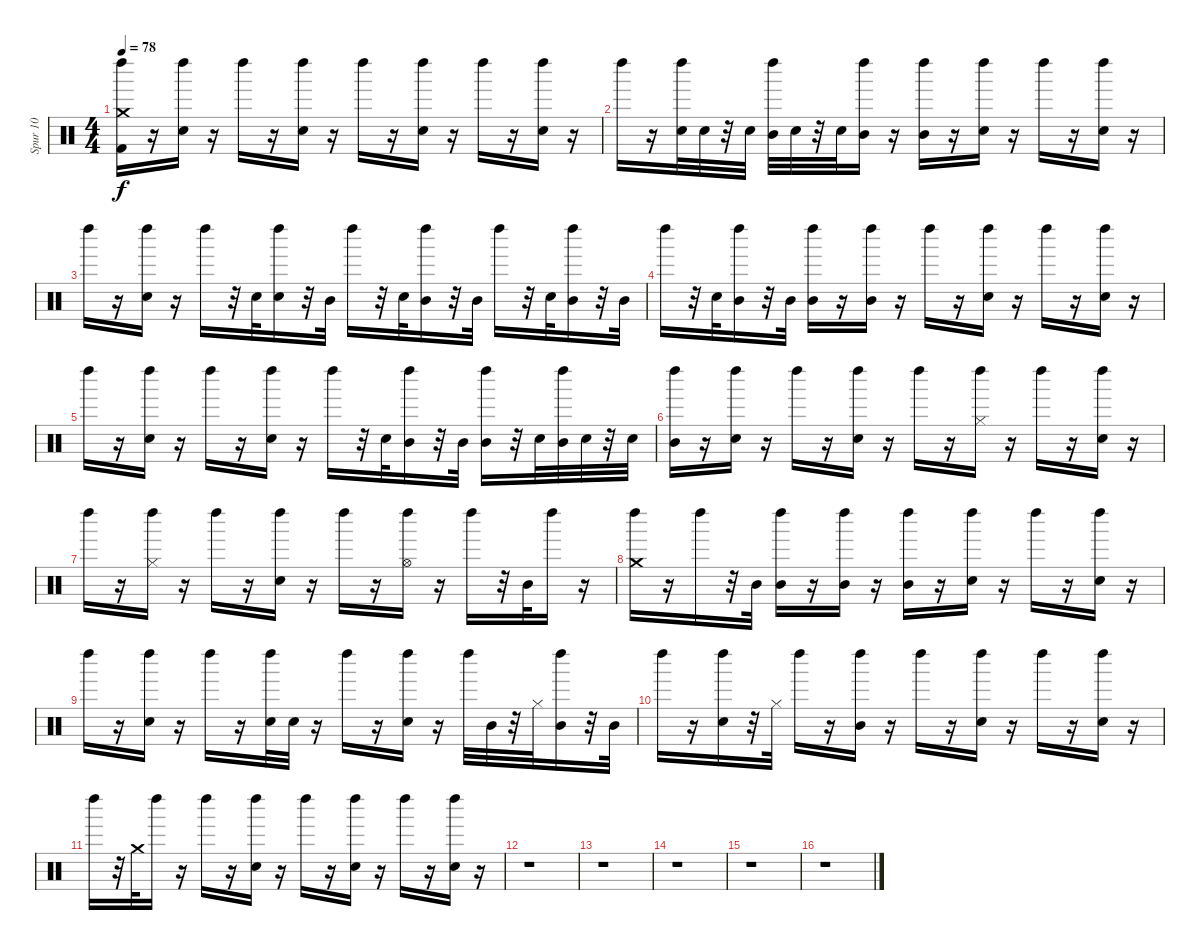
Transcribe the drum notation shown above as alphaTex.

\track ("Spur 10" "Spur 10") {instrument percussion}
\staff {score}
\articulation defaults
\ts (4 4)
\tempo 78
\clef neutral
\ks c
("Left Maraca (hit)" "Kick (hit) 2" "Crash medium (hit)").16{dy f} r.16 ("Left Maraca (hit)" "Snare (hit) 2").16 r.16 "Left Maraca (hit)".16 r.16 ("Left Maraca (hit)" "Snare (hit) 2").16 r.16 "Left Maraca (hit)".16 r.16 ("Left Maraca (hit)" "Snare (hit) 2").16 r.16 "Left Maraca (hit)".16 r.16 ("Left Maraca (hit)" "Snare (hit) 2").16 r.16 |
"Left Maraca (hit)".16 r.16 ("Left Maraca (hit)" "Snare (hit) 2").32 "Snare (hit) 2".32 r.32 "Snare (hit) 2".32 ("Left Maraca (hit)" "Mid Tom (hit)").32 "Snare (hit) 2".32 r.32 "Snare (hit) 2".32 ("Left Maraca (hit)" "Mid Tom (hit)").16 r.16 ("Left Maraca (hit)" "Mid Tom (hit)").16 r.16 ("Left Maraca (hit)" "Snare (hit) 2").16 r.16 "Left Maraca (hit)".16 r.16 ("Left Maraca (hit)" "Snare (hit) 2").16 r.16 |
"Left Maraca (hit)".16 r.16 ("Left Maraca (hit)" "Snare (hit) 2").16 r.16 "Left Maraca (hit)".16 r.32 "Snare (hit) 2".32 ("Left Maraca (hit)" "Snare (hit) 2").16 r.32 "Mid Tom (hit)".32 "Left Maraca (hit)".16 r.32 "Snare (hit) 2".32 ("Left Maraca (hit)" "Mid Tom (hit)").16 r.32 "Mid Tom (hit)".32 "Left Maraca (hit)".16 r.32 "Snare (hit) 2".32 ("Left Maraca (hit)" "Mid Tom (hit)").16 r.32 "Mid Tom (hit)".32 |
"Left Maraca (hit)".16 r.32 "Snare (hit) 2".32 ("Left Maraca (hit)" "Mid Tom (hit)").16 r.32 "Mid Tom (hit)".32 ("Left Maraca (hit)" "Mid Tom (hit)").16 r.16 ("Left Maraca (hit)" "Mid Tom (hit)").16 r.16 "Left Maraca (hit)".16 r.16 ("Left Maraca (hit)" "Snare (hit) 2").16 r.16 "Left Maraca (hit)".16 r.16 ("Left Maraca (hit)" "Snare (hit) 2").16 r.16 |
"Left Maraca (hit)".16 r.16 ("Left Maraca (hit)" "Snare (hit) 2").16 r.16 "Left Maraca (hit)".16 r.16 ("Left Maraca (hit)" "Snare (hit) 2").16 r.16 "Left Maraca (hit)".16 r.32 "Snare (hit) 2".32 ("Left Maraca (hit)" "Mid Tom (hit)").16 r.32 "Mid Tom (hit)".32 ("Left Maraca (hit)" "Mid Tom (hit)").16 r.32 "Snare (hit) 2".32 ("Left Maraca (hit)" "Mid Tom (hit)").32 "Snare (hit) 2".32 r.32 "Snare (hit) 2".32 |
("Left Maraca (hit)" "Mid Tom (hit)").16 r.16 ("Left Maraca (hit)" "Snare (hit) 2").16 r.16 "Left Maraca (hit)".16 r.16 ("Left Maraca (hit)" "Snare (hit) 2").16 r.16 "Left Maraca (hit)".16 r.16 ("Left Maraca (hit)" "Hi-Hat (closed)").16 r.16 "Left Maraca (hit)".16 r.16 ("Left Maraca (hit)" "Snare (hit) 2").16 r.16 |
"Left Maraca (hit)".16 r.16 ("Left Maraca (hit)" "Hi-Hat (closed)").16 r.16 "Left Maraca (hit)".16 r.16 ("Left Maraca (hit)" "Snare (hit) 2").16 r.16 "Left Maraca (hit)".16 r.16 ("Left Maraca (hit)" "Hi-Hat (open)").16 r.16 "Left Maraca (hit)".16 r.32 "Mid Tom (hit)".32 "Left Maraca (hit)".16 r.16 |
("Left Maraca (hit)" "Crash medium (hit)").16 r.16 "Left Maraca (hit)".16 r.32 "Mid Tom (hit)".32 ("Left Maraca (hit)" "Mid Tom (hit)").16 r.16 ("Left Maraca (hit)" "Mid Tom (hit)").16 r.16 ("Left Maraca (hit)" "Mid Tom (hit)").16 r.16 ("Left Maraca (hit)" "Snare (hit) 2").16 r.16 "Left Maraca (hit)".16 r.16 ("Left Maraca (hit)" "Snare (hit) 2").16 r.16 |
"Left Maraca (hit)".16 r.16 ("Left Maraca (hit)" "Snare (hit) 2").16 r.16 "Left Maraca (hit)".16 r.16 ("Left Maraca (hit)" "Snare (hit) 2").32 "Snare (hit) 2".32 r.16 "Left Maraca (hit)".16 r.16 ("Left Maraca (hit)" "Snare (hit) 2").16 r.16 "Left Maraca (hit)".32 "Mid Tom (hit)".32 r.32 "Hi-Hat (closed)".32 ("Left Maraca (hit)" "Mid Tom (hit)").16 r.32 "Mid Tom (hit)".32 |
"Left Maraca (hit)".16 r.16 ("Left Maraca (hit)" "Snare (hit) 2").16 r.32 "Hi-Hat (closed)".32 "Left Maraca (hit)".16 r.16 ("Left Maraca (hit)" "Mid Tom (hit)").16 r.16 "Left Maraca (hit)".16 r.16 ("Left Maraca (hit)" "Snare (hit) 2").16 r.16 "Left Maraca (hit)".16 r.16 ("Left Maraca (hit)" "Snare (hit) 2").16 r.16 |
"Left Maraca (hit)".16 r.32 "Crash medium (hit)".32 "Left Maraca (hit)".16 r.16 "Left Maraca (hit)".16 r.16 ("Left Maraca (hit)" "Snare (hit) 2").16 r.16 "Left Maraca (hit)".16 r.16 ("Left Maraca (hit)" "Snare (hit) 2").16 r.16 "Left Maraca (hit)".16 r.16 ("Left Maraca (hit)" "Snare (hit) 2").16 r.16 |
r.1 |
r.1 |
r.1 |
r.1 |
r.1
